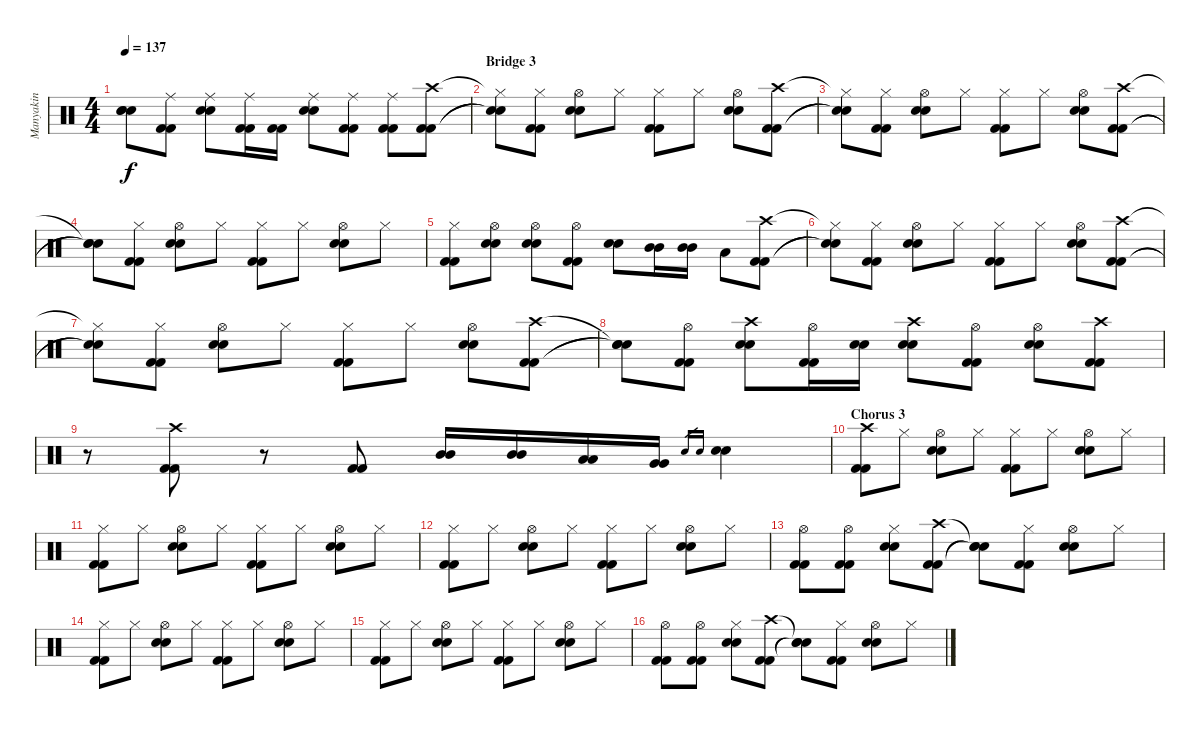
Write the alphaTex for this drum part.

\track ("Manyakin" "Manyakin") {instrument percussion}
\staff {score}
\articulation defaults
\ts (4 4)
\tempo 137
\clef neutral
\ks c
("Snare (hit)"{t} "Snare (hit)"{t} "Snare (hit)"{t}).8{dy f} ("Ride (middle)" "Kick (hit) 2" "Kick (hit) 2").8 ("Ride (middle)" "Electric Snare (hit)" "Electric Snare (hit)").8 ("Ride (middle)" "Kick (hit) 2" "Kick (hit) 2").16 ("Kick (hit) 2" "Kick (hit) 2").16 ("Ride (middle)" "Electric Snare (hit)" "Electric Snare (hit)").8 ("Ride (middle)" "Kick (hit) 2" "Kick (hit) 2").8 ("Ride (middle)" "Kick (hit) 2" "Kick (hit) 2").8 ("Crash high (hit)" "Kick (hit) 2" "Kick (hit) 2").8 |
\section ("" "Bridge 3")
("Hi-Hat (closed)"{t} "Snare (hit)"{t} "Snare (hit)"{t}).8 ("Hi-Hat (closed)" "Kick (hit) 2" "Kick (hit) 2").8 ("Hi-Hat (open)" "Electric Snare (hit)" "Electric Snare (hit)").8 "Hi-Hat (closed)".8 ("Hi-Hat (closed)" "Kick (hit) 2" "Kick (hit) 2").8 "Hi-Hat (closed)".8 ("Hi-Hat (open)" "Electric Snare (hit)" "Electric Snare (hit)").8 ("Crash high (hit)" "Kick (hit) 2" "Kick (hit) 2").8 |
("Hi-Hat (closed)"{t} "Snare (hit)"{t} "Snare (hit)"{t}).8 ("Hi-Hat (closed)" "Kick (hit) 2" "Kick (hit) 2").8 ("Hi-Hat (open)" "Electric Snare (hit)" "Electric Snare (hit)").8 "Hi-Hat (closed)".8 ("Hi-Hat (closed)" "Kick (hit) 2" "Kick (hit) 2").8 "Hi-Hat (closed)".8 ("Hi-Hat (open)" "Electric Snare (hit)" "Electric Snare (hit)").8 ("Crash high (hit)" "Kick (hit) 2" "Kick (hit) 2").8 |
("Snare (hit)"{t} "Snare (hit)"{t} "Snare (hit)"{t}).8 ("Hi-Hat (closed)" "Kick (hit) 2" "Kick (hit) 2").8 ("Hi-Hat (open)" "Electric Snare (hit)" "Electric Snare (hit)").8 "Hi-Hat (closed)".8 ("Hi-Hat (closed)" "Kick (hit) 2" "Kick (hit) 2").8 "Hi-Hat (closed)".8 ("Hi-Hat (open)" "Electric Snare (hit)" "Electric Snare (hit)").8 "Hi-Hat (closed)".8 |
("Hi-Hat (closed)" "Kick (hit) 2" "Kick (hit) 2").8 ("Hi-Hat (open)" "Electric Snare (hit)" "Electric Snare (hit)").8 ("Hi-Hat (open)" "Electric Snare (hit)" "Electric Snare (hit)").8 ("Hi-Hat (open)" "Kick (hit) 2" "Kick (hit) 2").8 ("Electric Snare (hit)" "Electric Snare (hit)").8 ("Mid Tom (hit)" "Mid Tom (hit)").16 ("Mid Tom (hit)" "Mid Tom (hit)").16 "Low Tom (hit)".8 ("Crash high (hit)" "Kick (hit) 2" "Kick (hit) 2").8 |
("Hi-Hat (closed)"{t} "Snare (hit)"{t} "Snare (hit)"{t}).8 ("Hi-Hat (closed)" "Kick (hit) 2" "Kick (hit) 2").8 ("Hi-Hat (open)" "Electric Snare (hit)" "Electric Snare (hit)").8 "Hi-Hat (closed)".8 ("Hi-Hat (closed)" "Kick (hit) 2" "Kick (hit) 2").8 "Hi-Hat (closed)".8 ("Hi-Hat (open)" "Electric Snare (hit)" "Electric Snare (hit)").8 ("Crash high (hit)" "Kick (hit) 2" "Kick (hit) 2").8 |
("Hi-Hat (closed)"{t} "Snare (hit)"{t} "Snare (hit)"{t}).8 ("Hi-Hat (closed)" "Kick (hit) 2" "Kick (hit) 2").8 ("Hi-Hat (open)" "Electric Snare (hit)" "Electric Snare (hit)").8 "Hi-Hat (closed)".8 ("Hi-Hat (closed)" "Kick (hit) 2" "Kick (hit) 2").8 "Hi-Hat (closed)".8 ("Hi-Hat (open)" "Electric Snare (hit)" "Electric Snare (hit)").8 ("Crash high (hit)" "Kick (hit) 2" "Kick (hit) 2").8 |
("Snare (hit)"{t} "Snare (hit)"{t} "Snare (hit)"{t}).8 ("Hi-Hat (open)" "Kick (hit) 2" "Kick (hit) 2").8 ("Crash high (hit)" "Electric Snare (hit)" "Electric Snare (hit)").8 ("Hi-Hat (open)" "Kick (hit) 2" "Kick (hit) 2").16 ("Electric Snare (hit)" "Electric Snare (hit)").16 ("Crash high (hit)" "Electric Snare (hit)" "Electric Snare (hit)").8 ("Hi-Hat (open)" "Kick (hit) 2" "Kick (hit) 2").8 ("Hi-Hat (open)" "Electric Snare (hit)" "Electric Snare (hit)").8 ("Crash high (hit)" "Kick (hit) 2" "Kick (hit) 2").8 |
r.8 ("Crash high (hit)" "Kick (hit) 2" "Kick (hit) 2").8 r.8 ("Kick (hit) 2" "Kick (hit) 2").8 ("Mid Tom (hit)" "Mid Tom (hit)").16 ("Mid Tom (hit)" "Mid Tom (hit)").16 ("Low Tom (hit)" "Low Tom (hit)").16 ("Very Low Tom (hit)" "Very Low Tom (hit)").16 "Electric Snare (hit)".16{gr} "Electric Snare (hit)".16{gr} ("Electric Snare (hit)" "Electric Snare (hit)").4 |
\section ("" "Chorus 3")
("Crash high (hit)" "Kick (hit) 2" "Kick (hit) 2").8 "Hi-Hat (closed)".8 ("Hi-Hat (open)" "Electric Snare (hit)" "Electric Snare (hit)").8 "Hi-Hat (closed)".8 ("Hi-Hat (closed)" "Kick (hit) 2" "Kick (hit) 2").8 "Hi-Hat (closed)".8 ("Hi-Hat (open)" "Electric Snare (hit)" "Electric Snare (hit)").8 "Hi-Hat (closed)".8 |
("Hi-Hat (closed)" "Kick (hit) 2" "Kick (hit) 2").8 "Hi-Hat (closed)".8 ("Hi-Hat (open)" "Electric Snare (hit)" "Electric Snare (hit)").8 "Hi-Hat (closed)".8 ("Hi-Hat (closed)" "Kick (hit) 2" "Kick (hit) 2").8 "Hi-Hat (closed)".8 ("Hi-Hat (open)" "Electric Snare (hit)" "Electric Snare (hit)").8 "Hi-Hat (closed)".8 |
("Hi-Hat (closed)" "Kick (hit) 2" "Kick (hit) 2").8 "Hi-Hat (closed)".8 ("Hi-Hat (open)" "Electric Snare (hit)" "Electric Snare (hit)").8 "Hi-Hat (closed)".8 ("Hi-Hat (closed)" "Kick (hit) 2" "Kick (hit) 2").8 "Hi-Hat (closed)".8 ("Hi-Hat (open)" "Electric Snare (hit)" "Electric Snare (hit)").8 "Hi-Hat (closed)".8 |
("Hi-Hat (open)" "Kick (hit) 2" "Kick (hit) 2").8 ("Hi-Hat (open)" "Kick (hit) 2" "Kick (hit) 2").8 ("Hi-Hat (closed)" "Electric Snare (hit)" "Electric Snare (hit)").8 ("Crash high (hit)" "Kick (hit) 2" "Kick (hit) 2").8 ("Snare (hit)"{t} "Snare (hit)"{t} "Snare (hit)"{t}).8 ("Hi-Hat (closed)" "Kick (hit) 2" "Kick (hit) 2").8 ("Hi-Hat (open)" "Electric Snare (hit)" "Electric Snare (hit)").8 "Hi-Hat (closed)".8 |
("Hi-Hat (closed)" "Kick (hit) 2" "Kick (hit) 2").8 "Hi-Hat (closed)".8 ("Hi-Hat (open)" "Electric Snare (hit)" "Electric Snare (hit)").8 "Hi-Hat (closed)".8 ("Hi-Hat (closed)" "Kick (hit) 2" "Kick (hit) 2").8 "Hi-Hat (closed)".8 ("Hi-Hat (open)" "Electric Snare (hit)" "Electric Snare (hit)").8 "Hi-Hat (closed)".8 |
("Hi-Hat (closed)" "Kick (hit) 2" "Kick (hit) 2").8 "Hi-Hat (closed)".8 ("Hi-Hat (open)" "Electric Snare (hit)" "Electric Snare (hit)").8 "Hi-Hat (closed)".8 ("Hi-Hat (closed)" "Kick (hit) 2" "Kick (hit) 2").8 "Hi-Hat (closed)".8 ("Hi-Hat (open)" "Electric Snare (hit)" "Electric Snare (hit)").8 "Hi-Hat (closed)".8 |
("Hi-Hat (open)" "Kick (hit) 2" "Kick (hit) 2").8 ("Hi-Hat (open)" "Kick (hit) 2" "Kick (hit) 2").8 ("Hi-Hat (closed)" "Electric Snare (hit)" "Electric Snare (hit)").8 ("Crash high (hit)" "Kick (hit) 2" "Kick (hit) 2").8 ("Snare (hit)"{t} "Snare (hit)"{t} "Snare (hit)"{t}).8 ("Hi-Hat (closed)" "Kick (hit) 2" "Kick (hit) 2").8 ("Hi-Hat (open)" "Electric Snare (hit)" "Electric Snare (hit)").8 "Hi-Hat (closed)".8
